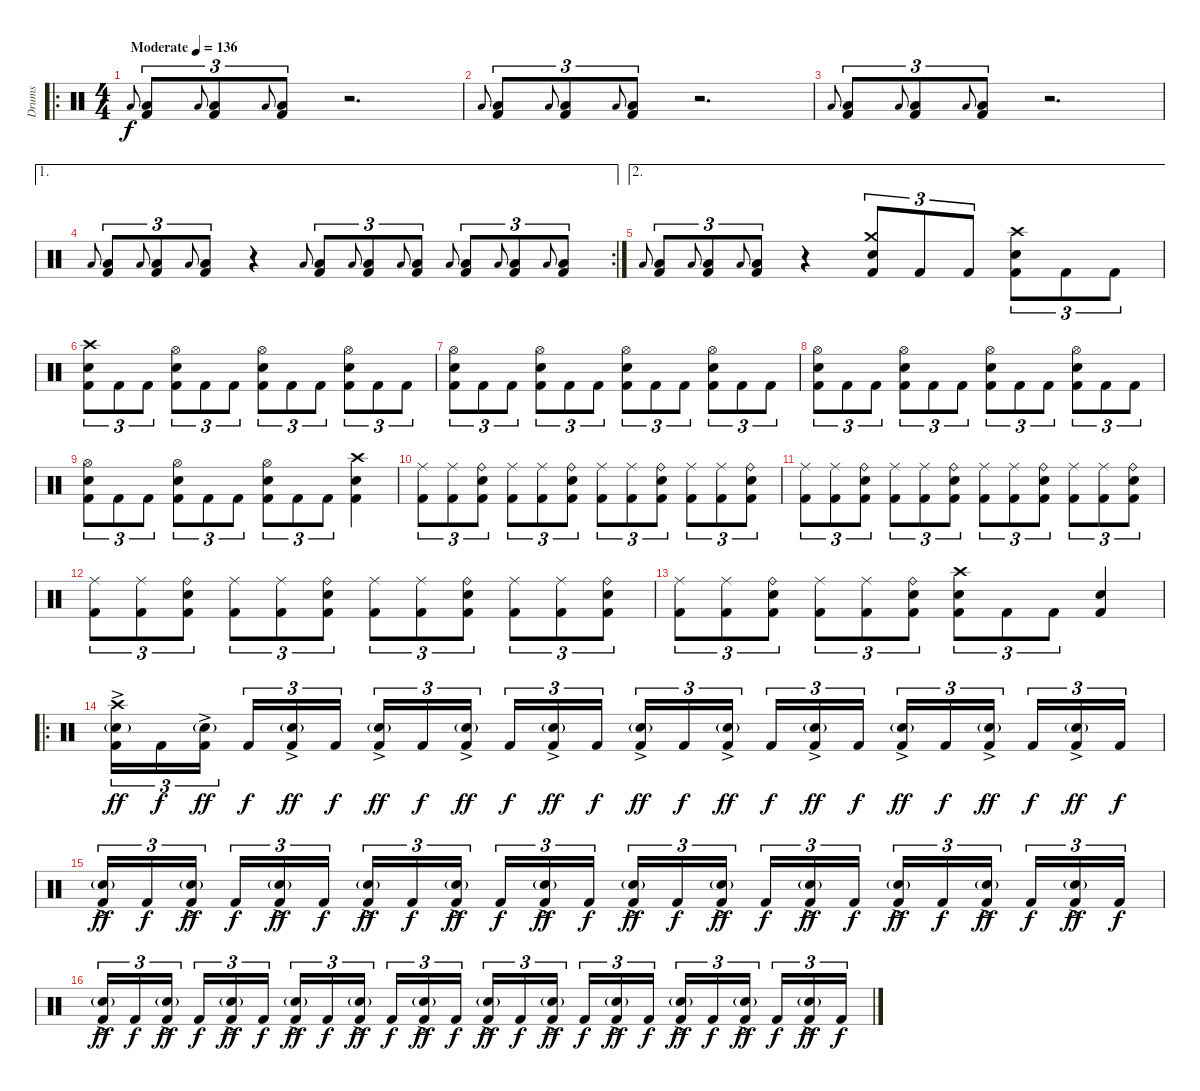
\track ("Drums" "Drums") {instrument percussion}
\staff {score}
\articulation defaults
\ro
\ts (4 4)
\tempo (136 "Moderate")
\clef neutral
\ks c "Low Floor Tom (hit)".8{gr onbeat dy f}
("Low Floor Tom (hit)" "Kick (hit) 2").8{tu (3 2)} "Low Floor Tom (hit)".8{gr onbeat} ("Low Floor Tom (hit)" "Kick (hit) 2").8{tu (3 2)} "Low Floor Tom (hit)".8{gr onbeat} ("Low Floor Tom (hit)" "Kick (hit) 2").8{tu (3 2)} r.2{d} |
"Low Floor Tom (hit)".8{gr onbeat} ("Low Floor Tom (hit)" "Kick (hit) 2").8{tu (3 2)} "Low Floor Tom (hit)".8{gr onbeat} ("Low Floor Tom (hit)" "Kick (hit) 2").8{tu (3 2)} "Low Floor Tom (hit)".8{gr onbeat} ("Low Floor Tom (hit)" "Kick (hit) 2").8{tu (3 2)} r.2{d} |
"Low Floor Tom (hit)".8{gr onbeat} ("Low Floor Tom (hit)" "Kick (hit) 2").8{tu (3 2)} "Low Floor Tom (hit)".8{gr onbeat} ("Low Floor Tom (hit)" "Kick (hit) 2").8{tu (3 2)} "Low Floor Tom (hit)".8{gr onbeat} ("Low Floor Tom (hit)" "Kick (hit) 2").8{tu (3 2)} r.2{d} |
\ae 1
\rc 2 "Low Floor Tom (hit)".8{gr onbeat}
("Low Floor Tom (hit)" "Kick (hit) 2").8{tu (3 2)} "Low Floor Tom (hit)".8{gr onbeat} ("Low Floor Tom (hit)" "Kick (hit) 2").8{tu (3 2)} "Low Floor Tom (hit)".8{gr onbeat} ("Low Floor Tom (hit)" "Kick (hit) 2").8{tu (3 2)} r.4 "Low Floor Tom (hit)".8{gr onbeat} ("Low Floor Tom (hit)" "Kick (hit) 2").8{tu (3 2)} "Low Floor Tom (hit)".8{gr onbeat} ("Low Floor Tom (hit)" "Kick (hit) 2").8{tu (3 2)} "Low Floor Tom (hit)".8{gr onbeat} ("Low Floor Tom (hit)" "Kick (hit) 2").8{tu (3 2)} "Low Floor Tom (hit)".8{gr onbeat} ("Low Floor Tom (hit)" "Kick (hit) 2").8{tu (3 2)} "Low Floor Tom (hit)".8{gr onbeat} ("Low Floor Tom (hit)" "Kick (hit) 2").8{tu (3 2)} "Low Floor Tom (hit)".8{gr onbeat} ("Low Floor Tom (hit)" "Kick (hit) 2").8{tu (3 2)} |
\ae 2 "Low Floor Tom (hit)".8{gr onbeat}
("Low Floor Tom (hit)" "Kick (hit) 2").8{tu (3 2)} "Low Floor Tom (hit)".8{gr onbeat} ("Low Floor Tom (hit)" "Kick (hit) 2").8{tu (3 2)} "Low Floor Tom (hit)".8{gr onbeat} ("Low Floor Tom (hit)" "Kick (hit) 2").8{tu (3 2)} r.4 ("Crash medium (hit)" "Electric Snare (hit)" "Kick (hit) 2").8{tu (3 2)} "Kick (hit) 2".8{tu (3 2)} "Kick (hit) 2".8{tu (3 2)} ("Crash high (hit)" "Electric Snare (hit)" "Kick (hit) 2").8{tu (3 2)} "Kick (hit) 2".8{tu (3 2)} "Kick (hit) 2".8{tu (3 2)} |
("Crash high (hit)" "Electric Snare (hit)" "Kick (hit) 2").8{tu (3 2)} "Kick (hit) 2".8{tu (3 2)} "Kick (hit) 2".8{tu (3 2)} ("Hi-Hat (open)" "Electric Snare (hit)" "Kick (hit) 2").8{tu (3 2)} "Kick (hit) 2".8{tu (3 2)} "Kick (hit) 2".8{tu (3 2)} ("Hi-Hat (open)" "Electric Snare (hit)" "Kick (hit) 2").8{tu (3 2)} "Kick (hit) 2".8{tu (3 2)} "Kick (hit) 2".8{tu (3 2)} ("Hi-Hat (open)" "Electric Snare (hit)" "Kick (hit) 2").8{tu (3 2)} "Kick (hit) 2".8{tu (3 2)} "Kick (hit) 2".8{tu (3 2)} |
("Hi-Hat (open)" "Electric Snare (hit)" "Kick (hit) 2").8{tu (3 2)} "Kick (hit) 2".8{tu (3 2)} "Kick (hit) 2".8{tu (3 2)} ("Hi-Hat (open)" "Electric Snare (hit)" "Kick (hit) 2").8{tu (3 2)} "Kick (hit) 2".8{tu (3 2)} "Kick (hit) 2".8{tu (3 2)} ("Hi-Hat (open)" "Electric Snare (hit)" "Kick (hit) 2").8{tu (3 2)} "Kick (hit) 2".8{tu (3 2)} "Kick (hit) 2".8{tu (3 2)} ("Hi-Hat (open)" "Electric Snare (hit)" "Kick (hit) 2").8{tu (3 2)} "Kick (hit) 2".8{tu (3 2)} "Kick (hit) 2".8{tu (3 2)} |
("Hi-Hat (open)" "Electric Snare (hit)" "Kick (hit) 2").8{tu (3 2)} "Kick (hit) 2".8{tu (3 2)} "Kick (hit) 2".8{tu (3 2)} ("Hi-Hat (open)" "Electric Snare (hit)" "Kick (hit) 2").8{tu (3 2)} "Kick (hit) 2".8{tu (3 2)} "Kick (hit) 2".8{tu (3 2)} ("Hi-Hat (open)" "Electric Snare (hit)" "Kick (hit) 2").8{tu (3 2)} "Kick (hit) 2".8{tu (3 2)} "Kick (hit) 2".8{tu (3 2)} ("Hi-Hat (open)" "Electric Snare (hit)" "Kick (hit) 2").8{tu (3 2)} "Kick (hit) 2".8{tu (3 2)} "Kick (hit) 2".8{tu (3 2)} |
("Hi-Hat (open)" "Electric Snare (hit)" "Kick (hit) 2").8{tu (3 2)} "Kick (hit) 2".8{tu (3 2)} "Kick (hit) 2".8{tu (3 2)} ("Hi-Hat (open)" "Electric Snare (hit)" "Kick (hit) 2").8{tu (3 2)} "Kick (hit) 2".8{tu (3 2)} "Kick (hit) 2".8{tu (3 2)} ("Hi-Hat (open)" "Electric Snare (hit)" "Kick (hit) 2").8{tu (3 2)} "Kick (hit) 2".8{tu (3 2)} "Kick (hit) 2".8{tu (3 2)} ("Crash high (hit)" "Electric Snare (hit)" "Kick (hit) 2").4 |
("Ride (middle)" "Kick (hit) 2").8{tu (3 2)} ("Ride (middle)" "Kick (hit) 2").8{tu (3 2)} ("Ride (bell)" "Electric Snare (hit)" "Kick (hit) 2").8{tu (3 2)} ("Ride (middle)" "Kick (hit) 2").8{tu (3 2)} ("Ride (middle)" "Kick (hit) 2").8{tu (3 2)} ("Ride (bell)" "Electric Snare (hit)" "Kick (hit) 2").8{tu (3 2)} ("Ride (middle)" "Kick (hit) 2").8{tu (3 2)} ("Ride (middle)" "Kick (hit) 2").8{tu (3 2)} ("Ride (bell)" "Electric Snare (hit)" "Kick (hit) 2").8{tu (3 2)} ("Ride (middle)" "Kick (hit) 2").8{tu (3 2)} ("Ride (middle)" "Kick (hit) 2").8{tu (3 2)} ("Ride (bell)" "Electric Snare (hit)" "Kick (hit) 2").8{tu (3 2)} |
("Ride (middle)" "Kick (hit) 2").8{tu (3 2)} ("Ride (middle)" "Kick (hit) 2").8{tu (3 2)} ("Ride (bell)" "Electric Snare (hit)" "Kick (hit) 2").8{tu (3 2)} ("Ride (middle)" "Kick (hit) 2").8{tu (3 2)} ("Ride (middle)" "Kick (hit) 2").8{tu (3 2)} ("Ride (bell)" "Electric Snare (hit)" "Kick (hit) 2").8{tu (3 2)} ("Ride (middle)" "Kick (hit) 2").8{tu (3 2)} ("Ride (middle)" "Kick (hit) 2").8{tu (3 2)} ("Ride (bell)" "Electric Snare (hit)" "Kick (hit) 2").8{tu (3 2)} ("Ride (middle)" "Kick (hit) 2").8{tu (3 2)} ("Ride (middle)" "Kick (hit) 2").8{tu (3 2)} ("Ride (bell)" "Electric Snare (hit)" "Kick (hit) 2").8{tu (3 2)} |
("Ride (middle)" "Kick (hit) 2").8{tu (3 2)} ("Ride (middle)" "Kick (hit) 2").8{tu (3 2)} ("Ride (bell)" "Electric Snare (hit)" "Kick (hit) 2").8{tu (3 2)} ("Ride (middle)" "Kick (hit) 2").8{tu (3 2)} ("Ride (middle)" "Kick (hit) 2").8{tu (3 2)} ("Ride (bell)" "Electric Snare (hit)" "Kick (hit) 2").8{tu (3 2)} ("Ride (middle)" "Kick (hit) 2").8{tu (3 2)} ("Ride (middle)" "Kick (hit) 2").8{tu (3 2)} ("Ride (bell)" "Electric Snare (hit)" "Kick (hit) 2").8{tu (3 2)} ("Ride (middle)" "Kick (hit) 2").8{tu (3 2)} ("Ride (middle)" "Kick (hit) 2").8{tu (3 2)} ("Ride (bell)" "Electric Snare (hit)" "Kick (hit) 2").8{tu (3 2)} |
("Ride (middle)" "Kick (hit) 2").8{tu (3 2)} ("Ride (middle)" "Kick (hit) 2").8{tu (3 2)} ("Ride (bell)" "Electric Snare (hit)" "Kick (hit) 2").8{tu (3 2)} ("Ride (middle)" "Kick (hit) 2").8{tu (3 2)} ("Ride (middle)" "Kick (hit) 2").8{tu (3 2)} ("Ride (bell)" "Electric Snare (hit)" "Kick (hit) 2").8{tu (3 2)} ("Crash high (hit)" "Electric Snare (hit)" "Kick (hit) 2").8{tu (3 2)} "Kick (hit) 2".8{tu (3 2)} "Kick (hit) 2".8{tu (3 2)} ("Electric Snare (hit)" "Kick (hit) 2").4 |
\ro
("Crash high (hit)" "Electric Snare (hit)"{g} "Kick (hit) 2"{ac}).16{tu (3 2) dy ff} "Kick (hit) 2".16{tu (3 2) dy f} ("Electric Snare (hit)"{g} "Kick (hit) 2"{ac}).16{tu (3 2) dy ff beam splitsecondary} "Kick (hit) 2".16{tu (3 2) dy f} ("Electric Snare (hit)"{g} "Kick (hit) 2"{ac}).16{tu (3 2) dy ff} "Kick (hit) 2".16{tu (3 2) dy f} ("Electric Snare (hit)"{g} "Kick (hit) 2"{ac}).16{tu (3 2) dy ff} "Kick (hit) 2".16{tu (3 2) dy f} ("Electric Snare (hit)"{g} "Kick (hit) 2"{ac}).16{tu (3 2) dy ff beam splitsecondary} "Kick (hit) 2".16{tu (3 2) dy f} ("Electric Snare (hit)"{g} "Kick (hit) 2"{ac}).16{tu (3 2) dy ff} "Kick (hit) 2".16{tu (3 2) dy f} ("Electric Snare (hit)"{g} "Kick (hit) 2"{ac}).16{tu (3 2) dy ff} "Kick (hit) 2".16{tu (3 2) dy f} ("Electric Snare (hit)"{g} "Kick (hit) 2"{ac}).16{tu (3 2) dy ff beam splitsecondary} "Kick (hit) 2".16{tu (3 2) dy f} ("Electric Snare (hit)"{g} "Kick (hit) 2"{ac}).16{tu (3 2) dy ff} "Kick (hit) 2".16{tu (3 2) dy f} ("Electric Snare (hit)"{g} "Kick (hit) 2"{ac}).16{tu (3 2) dy ff} "Kick (hit) 2".16{tu (3 2) dy f} ("Electric Snare (hit)"{g} "Kick (hit) 2"{ac}).16{tu (3 2) dy ff beam splitsecondary} "Kick (hit) 2".16{tu (3 2) dy f} ("Electric Snare (hit)"{g} "Kick (hit) 2"{ac}).16{tu (3 2) dy ff} "Kick (hit) 2".16{tu (3 2) dy f} |
("Electric Snare (hit)"{g} "Kick (hit) 2"{ac}).16{tu (3 2) dy ff} "Kick (hit) 2".16{tu (3 2) dy f} ("Electric Snare (hit)"{g} "Kick (hit) 2"{ac}).16{tu (3 2) dy ff beam splitsecondary} "Kick (hit) 2".16{tu (3 2) dy f} ("Electric Snare (hit)"{g} "Kick (hit) 2"{ac}).16{tu (3 2) dy ff} "Kick (hit) 2".16{tu (3 2) dy f} ("Electric Snare (hit)"{g} "Kick (hit) 2"{ac}).16{tu (3 2) dy ff} "Kick (hit) 2".16{tu (3 2) dy f} ("Electric Snare (hit)"{g} "Kick (hit) 2"{ac}).16{tu (3 2) dy ff beam splitsecondary} "Kick (hit) 2".16{tu (3 2) dy f} ("Electric Snare (hit)"{g} "Kick (hit) 2"{ac}).16{tu (3 2) dy ff} "Kick (hit) 2".16{tu (3 2) dy f} ("Electric Snare (hit)"{g} "Kick (hit) 2"{ac}).16{tu (3 2) dy ff} "Kick (hit) 2".16{tu (3 2) dy f} ("Electric Snare (hit)"{g} "Kick (hit) 2"{ac}).16{tu (3 2) dy ff beam splitsecondary} "Kick (hit) 2".16{tu (3 2) dy f} ("Electric Snare (hit)"{g} "Kick (hit) 2"{ac}).16{tu (3 2) dy ff} "Kick (hit) 2".16{tu (3 2) dy f} ("Electric Snare (hit)"{g} "Kick (hit) 2"{ac}).16{tu (3 2) dy ff} "Kick (hit) 2".16{tu (3 2) dy f} ("Electric Snare (hit)"{g} "Kick (hit) 2"{ac}).16{tu (3 2) dy ff beam splitsecondary} "Kick (hit) 2".16{tu (3 2) dy f} ("Electric Snare (hit)"{g} "Kick (hit) 2"{ac}).16{tu (3 2) dy ff} "Kick (hit) 2".16{tu (3 2) dy f} |
("Electric Snare (hit)"{g} "Kick (hit) 2"{ac}).16{tu (3 2) dy ff} "Kick (hit) 2".16{tu (3 2) dy f} ("Electric Snare (hit)"{g} "Kick (hit) 2"{ac}).16{tu (3 2) dy ff beam splitsecondary} "Kick (hit) 2".16{tu (3 2) dy f} ("Electric Snare (hit)"{g} "Kick (hit) 2"{ac}).16{tu (3 2) dy ff} "Kick (hit) 2".16{tu (3 2) dy f} ("Electric Snare (hit)"{g} "Kick (hit) 2"{ac}).16{tu (3 2) dy ff} "Kick (hit) 2".16{tu (3 2) dy f} ("Electric Snare (hit)"{g} "Kick (hit) 2"{ac}).16{tu (3 2) dy ff beam splitsecondary} "Kick (hit) 2".16{tu (3 2) dy f} ("Electric Snare (hit)"{g} "Kick (hit) 2"{ac}).16{tu (3 2) dy ff} "Kick (hit) 2".16{tu (3 2) dy f} ("Electric Snare (hit)"{g} "Kick (hit) 2"{ac}).16{tu (3 2) dy ff} "Kick (hit) 2".16{tu (3 2) dy f} ("Electric Snare (hit)"{g} "Kick (hit) 2"{ac}).16{tu (3 2) dy ff beam splitsecondary} "Kick (hit) 2".16{tu (3 2) dy f} ("Electric Snare (hit)"{g} "Kick (hit) 2"{ac}).16{tu (3 2) dy ff} "Kick (hit) 2".16{tu (3 2) dy f} ("Electric Snare (hit)"{g} "Kick (hit) 2"{ac}).16{tu (3 2) dy ff} "Kick (hit) 2".16{tu (3 2) dy f} ("Electric Snare (hit)"{g} "Kick (hit) 2"{ac}).16{tu (3 2) dy ff beam splitsecondary} "Kick (hit) 2".16{tu (3 2) dy f} ("Electric Snare (hit)"{g} "Kick (hit) 2"{ac}).16{tu (3 2) dy ff} "Kick (hit) 2".16{tu (3 2) dy f}
